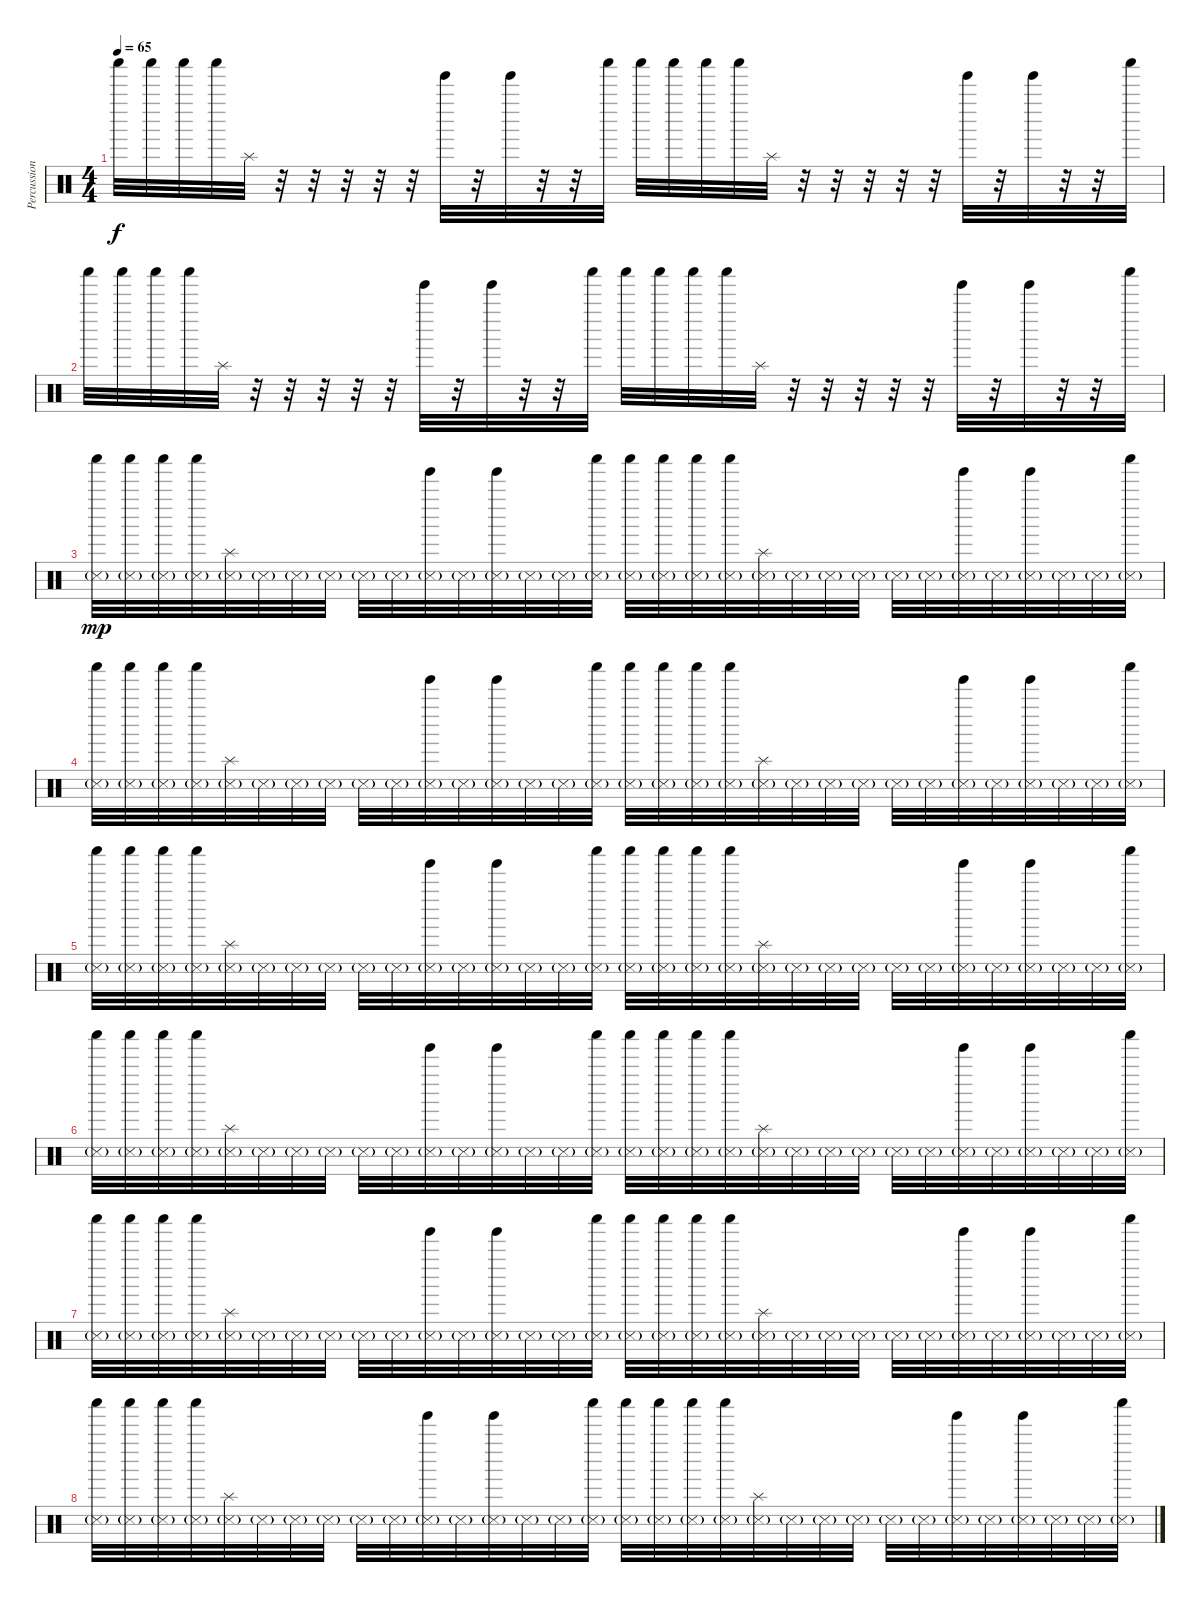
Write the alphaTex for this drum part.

\track ("Percussion 2" "Percussion") {instrument percussion}
\staff {score}
\articulation defaults
\ts (4 4)
\tempo 65
\clef neutral
\ks c "Shaker (hit)".32{dy f} "Shaker (hit)".32 "Shaker (hit)".32 "Shaker (hit)".32 "Splash (hit)".32
r.32 r.32 r.32 r.32 r.32 "Tinkle Bell (hit)".32 r.32 "Tinkle Bell (hit)".32 r.32 r.32 "Shaker (hit)".32 "Shaker (hit)".32 "Shaker (hit)".32 "Shaker (hit)".32 "Shaker (hit)".32 "Splash (hit)".32 r.32 r.32 r.32 r.32 r.32 "Tinkle Bell (hit)".32 r.32 "Tinkle Bell (hit)".32 r.32 r.32 "Shaker (hit)".32 |
"Shaker (hit)".32 "Shaker (hit)".32 "Shaker (hit)".32 "Shaker (hit)".32 "Splash (hit)".32 r.32 r.32 r.32 r.32 r.32 "Tinkle Bell (hit)".32 r.32 "Tinkle Bell (hit)".32 r.32 r.32 "Shaker (hit)".32 "Shaker (hit)".32 "Shaker (hit)".32 "Shaker (hit)".32 "Shaker (hit)".32 "Splash (hit)".32 r.32 r.32 r.32 r.32 r.32 "Tinkle Bell (hit)".32 r.32 "Tinkle Bell (hit)".32 r.32 r.32 "Shaker (hit)".32 |
\section ("" "")
("Snare (side stick) 3"{g} "Shaker (hit)").32{dy mp} ("Snare (side stick) 3"{g} "Shaker (hit)").32 ("Snare (side stick) 3"{g} "Shaker (hit)").32 ("Snare (side stick) 3"{g} "Shaker (hit)").32 ("Snare (side stick) 3"{g} "Splash (hit)").32 "Snare (side stick) 3"{g}.32 "Snare (side stick) 3"{g}.32 "Snare (side stick) 3"{g}.32 "Snare (side stick) 3"{g}.32 "Snare (side stick) 3"{g}.32 ("Tinkle Bell (hit)" "Snare (side stick) 3"{g}).32 "Snare (side stick) 3"{g}.32 ("Tinkle Bell (hit)" "Snare (side stick) 3"{g}).32 "Snare (side stick) 3"{g}.32 "Snare (side stick) 3"{g}.32 ("Snare (side stick) 3"{g} "Shaker (hit)").32 ("Snare (side stick) 3"{g} "Shaker (hit)").32 ("Snare (side stick) 3"{g} "Shaker (hit)").32 ("Snare (side stick) 3"{g} "Shaker (hit)").32 ("Snare (side stick) 3"{g} "Shaker (hit)").32 ("Snare (side stick) 3"{g} "Splash (hit)").32 "Snare (side stick) 3"{g}.32 "Snare (side stick) 3"{g}.32 "Snare (side stick) 3"{g}.32 "Snare (side stick) 3"{g}.32 "Snare (side stick) 3"{g}.32 ("Tinkle Bell (hit)" "Snare (side stick) 3"{g}).32 "Snare (side stick) 3"{g}.32 ("Tinkle Bell (hit)" "Snare (side stick) 3"{g}).32 "Snare (side stick) 3"{g}.32 "Snare (side stick) 3"{g}.32 ("Snare (side stick) 3"{g} "Shaker (hit)").32 |
("Snare (side stick) 3"{g} "Shaker (hit)").32 ("Snare (side stick) 3"{g} "Shaker (hit)").32 ("Snare (side stick) 3"{g} "Shaker (hit)").32 ("Snare (side stick) 3"{g} "Shaker (hit)").32 ("Snare (side stick) 3"{g} "Splash (hit)").32 "Snare (side stick) 3"{g}.32 "Snare (side stick) 3"{g}.32 "Snare (side stick) 3"{g}.32 "Snare (side stick) 3"{g}.32 "Snare (side stick) 3"{g}.32 ("Tinkle Bell (hit)" "Snare (side stick) 3"{g}).32 "Snare (side stick) 3"{g}.32 ("Tinkle Bell (hit)" "Snare (side stick) 3"{g}).32 "Snare (side stick) 3"{g}.32 "Snare (side stick) 3"{g}.32 ("Snare (side stick) 3"{g} "Shaker (hit)").32 ("Snare (side stick) 3"{g} "Shaker (hit)").32 ("Snare (side stick) 3"{g} "Shaker (hit)").32 ("Snare (side stick) 3"{g} "Shaker (hit)").32 ("Snare (side stick) 3"{g} "Shaker (hit)").32 ("Snare (side stick) 3"{g} "Splash (hit)").32 "Snare (side stick) 3"{g}.32 "Snare (side stick) 3"{g}.32 "Snare (side stick) 3"{g}.32 "Snare (side stick) 3"{g}.32 "Snare (side stick) 3"{g}.32 ("Tinkle Bell (hit)" "Snare (side stick) 3"{g}).32 "Snare (side stick) 3"{g}.32 ("Tinkle Bell (hit)" "Snare (side stick) 3"{g}).32 "Snare (side stick) 3"{g}.32 "Snare (side stick) 3"{g}.32 ("Snare (side stick) 3"{g} "Shaker (hit)").32 |
("Snare (side stick) 3"{g} "Shaker (hit)").32 ("Snare (side stick) 3"{g} "Shaker (hit)").32 ("Snare (side stick) 3"{g} "Shaker (hit)").32 ("Snare (side stick) 3"{g} "Shaker (hit)").32 ("Snare (side stick) 3"{g} "Splash (hit)").32 "Snare (side stick) 3"{g}.32 "Snare (side stick) 3"{g}.32 "Snare (side stick) 3"{g}.32 "Snare (side stick) 3"{g}.32 "Snare (side stick) 3"{g}.32 ("Tinkle Bell (hit)" "Snare (side stick) 3"{g}).32 "Snare (side stick) 3"{g}.32 ("Tinkle Bell (hit)" "Snare (side stick) 3"{g}).32 "Snare (side stick) 3"{g}.32 "Snare (side stick) 3"{g}.32 ("Snare (side stick) 3"{g} "Shaker (hit)").32 ("Snare (side stick) 3"{g} "Shaker (hit)").32 ("Snare (side stick) 3"{g} "Shaker (hit)").32 ("Snare (side stick) 3"{g} "Shaker (hit)").32 ("Snare (side stick) 3"{g} "Shaker (hit)").32 ("Snare (side stick) 3"{g} "Splash (hit)").32 "Snare (side stick) 3"{g}.32 "Snare (side stick) 3"{g}.32 "Snare (side stick) 3"{g}.32 "Snare (side stick) 3"{g}.32 "Snare (side stick) 3"{g}.32 ("Tinkle Bell (hit)" "Snare (side stick) 3"{g}).32 "Snare (side stick) 3"{g}.32 ("Tinkle Bell (hit)" "Snare (side stick) 3"{g}).32 "Snare (side stick) 3"{g}.32 "Snare (side stick) 3"{g}.32 ("Snare (side stick) 3"{g} "Shaker (hit)").32 |
("Snare (side stick) 3"{g} "Shaker (hit)").32 ("Snare (side stick) 3"{g} "Shaker (hit)").32 ("Snare (side stick) 3"{g} "Shaker (hit)").32 ("Snare (side stick) 3"{g} "Shaker (hit)").32 ("Snare (side stick) 3"{g} "Splash (hit)").32 "Snare (side stick) 3"{g}.32 "Snare (side stick) 3"{g}.32 "Snare (side stick) 3"{g}.32 "Snare (side stick) 3"{g}.32 "Snare (side stick) 3"{g}.32 ("Tinkle Bell (hit)" "Snare (side stick) 3"{g}).32 "Snare (side stick) 3"{g}.32 ("Tinkle Bell (hit)" "Snare (side stick) 3"{g}).32 "Snare (side stick) 3"{g}.32 "Snare (side stick) 3"{g}.32 ("Snare (side stick) 3"{g} "Shaker (hit)").32 ("Snare (side stick) 3"{g} "Shaker (hit)").32 ("Snare (side stick) 3"{g} "Shaker (hit)").32 ("Snare (side stick) 3"{g} "Shaker (hit)").32 ("Snare (side stick) 3"{g} "Shaker (hit)").32 ("Snare (side stick) 3"{g} "Splash (hit)").32 "Snare (side stick) 3"{g}.32 "Snare (side stick) 3"{g}.32 "Snare (side stick) 3"{g}.32 "Snare (side stick) 3"{g}.32 "Snare (side stick) 3"{g}.32 ("Tinkle Bell (hit)" "Snare (side stick) 3"{g}).32 "Snare (side stick) 3"{g}.32 ("Tinkle Bell (hit)" "Snare (side stick) 3"{g}).32 "Snare (side stick) 3"{g}.32 "Snare (side stick) 3"{g}.32 ("Snare (side stick) 3"{g} "Shaker (hit)").32 |
("Snare (side stick) 3"{g} "Shaker (hit)").32 ("Snare (side stick) 3"{g} "Shaker (hit)").32 ("Snare (side stick) 3"{g} "Shaker (hit)").32 ("Snare (side stick) 3"{g} "Shaker (hit)").32 ("Snare (side stick) 3"{g} "Splash (hit)").32 "Snare (side stick) 3"{g}.32 "Snare (side stick) 3"{g}.32 "Snare (side stick) 3"{g}.32 "Snare (side stick) 3"{g}.32 "Snare (side stick) 3"{g}.32 ("Tinkle Bell (hit)" "Snare (side stick) 3"{g}).32 "Snare (side stick) 3"{g}.32 ("Tinkle Bell (hit)" "Snare (side stick) 3"{g}).32 "Snare (side stick) 3"{g}.32 "Snare (side stick) 3"{g}.32 ("Snare (side stick) 3"{g} "Shaker (hit)").32 ("Snare (side stick) 3"{g} "Shaker (hit)").32 ("Snare (side stick) 3"{g} "Shaker (hit)").32 ("Snare (side stick) 3"{g} "Shaker (hit)").32 ("Snare (side stick) 3"{g} "Shaker (hit)").32 ("Snare (side stick) 3"{g} "Splash (hit)").32 "Snare (side stick) 3"{g}.32 "Snare (side stick) 3"{g}.32 "Snare (side stick) 3"{g}.32 "Snare (side stick) 3"{g}.32 "Snare (side stick) 3"{g}.32 ("Tinkle Bell (hit)" "Snare (side stick) 3"{g}).32 "Snare (side stick) 3"{g}.32 ("Tinkle Bell (hit)" "Snare (side stick) 3"{g}).32 "Snare (side stick) 3"{g}.32 "Snare (side stick) 3"{g}.32 ("Snare (side stick) 3"{g} "Shaker (hit)").32 |
("Snare (side stick) 3"{g} "Shaker (hit)").32 ("Snare (side stick) 3"{g} "Shaker (hit)").32 ("Snare (side stick) 3"{g} "Shaker (hit)").32 ("Snare (side stick) 3"{g} "Shaker (hit)").32 ("Snare (side stick) 3"{g} "Splash (hit)").32 "Snare (side stick) 3"{g}.32 "Snare (side stick) 3"{g}.32 "Snare (side stick) 3"{g}.32 "Snare (side stick) 3"{g}.32 "Snare (side stick) 3"{g}.32 ("Tinkle Bell (hit)" "Snare (side stick) 3"{g}).32 "Snare (side stick) 3"{g}.32 ("Tinkle Bell (hit)" "Snare (side stick) 3"{g}).32 "Snare (side stick) 3"{g}.32 "Snare (side stick) 3"{g}.32 ("Snare (side stick) 3"{g} "Shaker (hit)").32 ("Snare (side stick) 3"{g} "Shaker (hit)").32 ("Snare (side stick) 3"{g} "Shaker (hit)").32 ("Snare (side stick) 3"{g} "Shaker (hit)").32 ("Snare (side stick) 3"{g} "Shaker (hit)").32 ("Snare (side stick) 3"{g} "Splash (hit)").32 "Snare (side stick) 3"{g}.32 "Snare (side stick) 3"{g}.32 "Snare (side stick) 3"{g}.32 "Snare (side stick) 3"{g}.32 "Snare (side stick) 3"{g}.32 ("Tinkle Bell (hit)" "Snare (side stick) 3"{g}).32 "Snare (side stick) 3"{g}.32 ("Tinkle Bell (hit)" "Snare (side stick) 3"{g}).32 "Snare (side stick) 3"{g}.32 "Snare (side stick) 3"{g}.32 ("Snare (side stick) 3"{g} "Shaker (hit)").32
